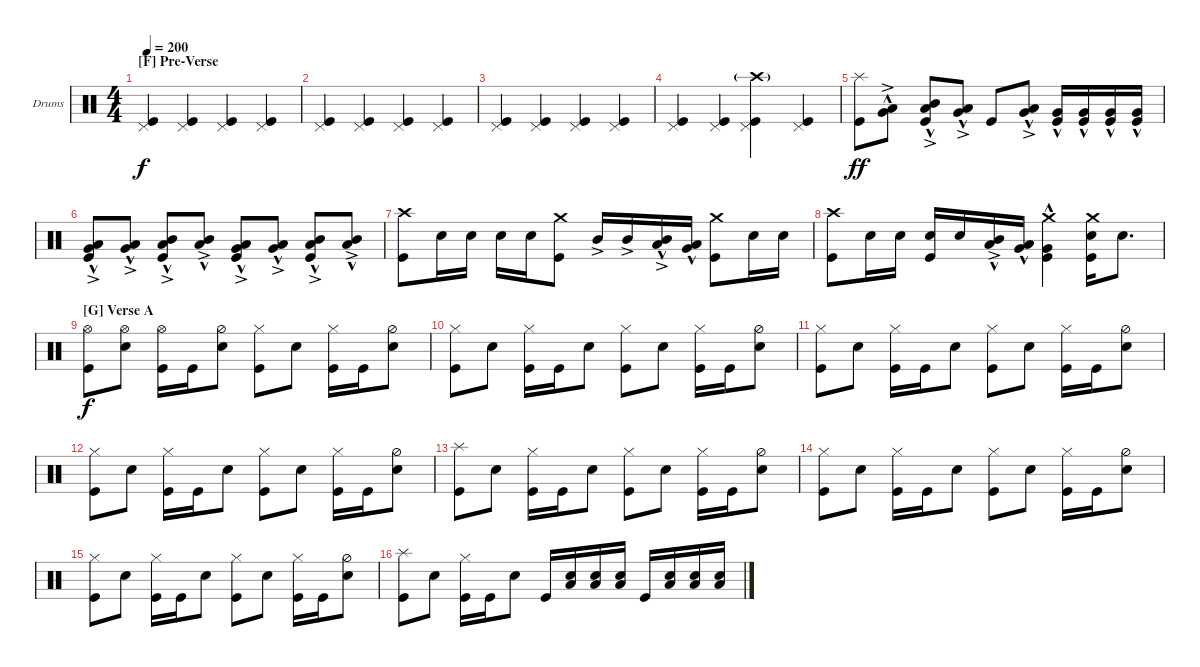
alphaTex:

\defaultSystemsLayout 4
\bracketExtendMode groupsimilarinstruments
\firstSystemTrackNameOrientation horizontal
\otherSystemsTrackNameOrientation horizontal
\track ("Drumkit" "Drums") {instrument percussion}
\staff {score}
\articulation defaults
\ts (4 4)
\section ("F" "Pre-Verse")
\tempo 200
\clef neutral
\ks c
("Kick (hit)" "Pedal Hi-Hat (hit)").4{dy f} ("Kick (hit)" "Pedal Hi-Hat (hit)").4 ("Kick (hit)" "Pedal Hi-Hat (hit)").4 ("Kick (hit)" "Pedal Hi-Hat (hit)").4 |
("Kick (hit)" "Pedal Hi-Hat (hit)").4 ("Kick (hit)" "Pedal Hi-Hat (hit)").4 ("Kick (hit)" "Pedal Hi-Hat (hit)").4 ("Kick (hit)" "Pedal Hi-Hat (hit)").4 |
("Kick (hit)" "Pedal Hi-Hat (hit)").4 ("Kick (hit)" "Pedal Hi-Hat (hit)").4 ("Kick (hit)" "Pedal Hi-Hat (hit)").4 ("Kick (hit)" "Pedal Hi-Hat (hit)").4 |
("Kick (hit)" "Pedal Hi-Hat (hit)").4 ("Kick (hit)" "Pedal Hi-Hat (hit)").4 ("Kick (hit)" "Pedal Hi-Hat (hit)" "Crash high (hit)"{g}).4 ("Kick (hit)" "Pedal Hi-Hat (hit)").4 |
("Kick (hit)" "Splash (hit)").8{dy ff} ("Very Low Tom (hit)"{hac} "Low Tom (hit)"{ac}).8 ("Kick (hit)" "Low Tom (hit)"{hac} "Mid Tom (hit)"{ac}).8 ("Very Low Tom (hit)"{hac} "Low Tom (hit)"{ac}).8 "Kick (hit)".8 ("Very Low Tom (hit)"{hac} "Low Tom (hit)"{ac}).8 ("Kick (hit)" "Very Low Tom (hit)"{hac}).16 ("Kick (hit)" "Very Low Tom (hit)"{hac}).16 ("Kick (hit)" "Very Low Tom (hit)"{hac}).16 ("Kick (hit)" "Very Low Tom (hit)"{hac}).16 |
("Kick (hit)" "Very Low Tom (hit)"{hac} "Low Tom (hit)"{ac}).8 ("Very Low Tom (hit)"{hac} "Low Tom (hit)"{ac}).8 ("Kick (hit)" "Low Tom (hit)"{hac} "Mid Tom (hit)"{ac}).8 ("Mid Tom (hit)"{ac} "Low Tom (hit)"{hac}).8 ("Kick (hit)" "Very Low Tom (hit)"{hac} "Low Tom (hit)"{ac}).8 ("Very Low Tom (hit)"{hac} "Low Tom (hit)"{ac}).8 ("Kick (hit)" "Low Tom (hit)"{hac} "Mid Tom (hit)"{ac}).8 ("Mid Tom (hit)"{ac} "Low Tom (hit)"{hac}).8 |
("Kick (hit)" "Crash high (hit)").8 "Snare (hit) 2".16 "Snare (hit) 2".16 "Snare (hit) 2".16 "Snare (hit) 2".16 ("Kick (hit)" "Crash medium (hit)").8 "Mid Tom (hit)"{ac}.16 "Mid Tom (hit)"{ac}.16 ("Low Tom (hit)"{hac} "Mid Tom (hit)"{ac}).16 ("Very Low Tom (hit)"{hac} "Low Tom (hit)"{hac}).16 ("Kick (hit)" "Crash medium (hit)").8 "Snare (hit) 2".16 "Snare (hit) 2".16 |
("Kick (hit)" "Crash high (hit)").8 "Snare (hit) 2".16 "Snare (hit) 2".16 ("Snare (hit) 2" "Kick (hit)").16 "Snare (hit) 2".16 ("Mid Tom (hit)"{ac} "Low Tom (hit)"{hac}).16 ("Low Tom (hit)"{hac} "Very Low Tom (hit)"{hac}).16 ("Kick (hit)" "Crash medium (hit)" "Very Low Tom (hit)"{hac}).4 ("Snare (hit) 2" "Kick (hit)" "Crash medium (hit)").16 "Snare (hit) 2".8{d} |
\section ("G" "Verse A")
("Kick (hit)" "Hi-Hat (open)").8{dy f} ("Snare (hit) 2" "Hi-Hat (open)").8 ("Kick (hit)" "Hi-Hat (open)").16 "Kick (hit)".16 ("Snare (hit) 2" "Hi-Hat (half)").8 ("Kick (hit)" "Hi-Hat (closed)").8 "Snare (hit) 2".8 ("Kick (hit)" "Hi-Hat (closed)").16 "Kick (hit)".16 ("Snare (hit) 2" "Hi-Hat (half)").8 |
("Kick (hit)" "Hi-Hat (closed)").8 "Snare (hit) 2".8 ("Kick (hit)" "Hi-Hat (closed)").16 "Kick (hit)".16 "Snare (hit) 2".8 ("Kick (hit)" "Hi-Hat (closed)").8 "Snare (hit) 2".8 ("Kick (hit)" "Hi-Hat (closed)").16 "Kick (hit)".16 ("Snare (hit) 2" "Hi-Hat (half)").8 |
("Kick (hit)" "Hi-Hat (closed)").8 "Snare (hit) 2".8 ("Kick (hit)" "Hi-Hat (closed)").16 "Kick (hit)".16 "Snare (hit) 2".8 ("Kick (hit)" "Hi-Hat (closed)").8 "Snare (hit) 2".8 ("Kick (hit)" "Hi-Hat (closed)").16 "Kick (hit)".16 ("Snare (hit) 2" "Hi-Hat (half)").8 |
("Kick (hit)" "Hi-Hat (closed)").8 "Snare (hit) 2".8 ("Kick (hit)" "Hi-Hat (closed)").16 "Kick (hit)".16 "Snare (hit) 2".8 ("Kick (hit)" "Hi-Hat (closed)").8 "Snare (hit) 2".8 ("Kick (hit)" "Hi-Hat (closed)").16 "Kick (hit)".16 ("Snare (hit) 2" "Hi-Hat (half)").8 |
("Kick (hit)" "Splash (hit)").8 "Snare (hit) 2".8 ("Kick (hit)" "Hi-Hat (closed)").16 "Kick (hit)".16 "Snare (hit) 2".8 ("Kick (hit)" "Hi-Hat (closed)").8 "Snare (hit) 2".8 ("Kick (hit)" "Hi-Hat (closed)").16 "Kick (hit)".16 ("Snare (hit) 2" "Hi-Hat (half)").8 |
("Kick (hit)" "Hi-Hat (closed)").8 "Snare (hit) 2".8 ("Kick (hit)" "Hi-Hat (closed)").16 "Kick (hit)".16 "Snare (hit) 2".8 ("Kick (hit)" "Hi-Hat (closed)").8 "Snare (hit) 2".8 ("Kick (hit)" "Hi-Hat (closed)").16 "Kick (hit)".16 ("Snare (hit) 2" "Hi-Hat (half)").8 |
("Kick (hit)" "Hi-Hat (closed)").8 "Snare (hit) 2".8 ("Kick (hit)" "Hi-Hat (closed)").16 "Kick (hit)".16 "Snare (hit) 2".8 ("Kick (hit)" "Hi-Hat (closed)").8 "Snare (hit) 2".8 ("Kick (hit)" "Hi-Hat (closed)").16 "Kick (hit)".16 ("Snare (hit) 2" "Hi-Hat (half)").8 |
("Kick (hit)" "Splash (hit)").8 "Snare (hit) 2".8 ("Kick (hit)" "Hi-Hat (closed)").16 "Kick (hit)".16 "Snare (hit) 2".8 "Kick (hit)".16 ("Snare (hit) 2" "Low Tom (hit)").16 ("Snare (hit) 2" "Low Tom (hit)").16 ("Snare (hit) 2" "Low Tom (hit)").16 "Kick (hit)".16 ("Snare (hit) 2" "Low Tom (hit)").16 ("Snare (hit) 2" "Low Tom (hit)").16 ("Snare (hit) 2" "Low Tom (hit)").16
